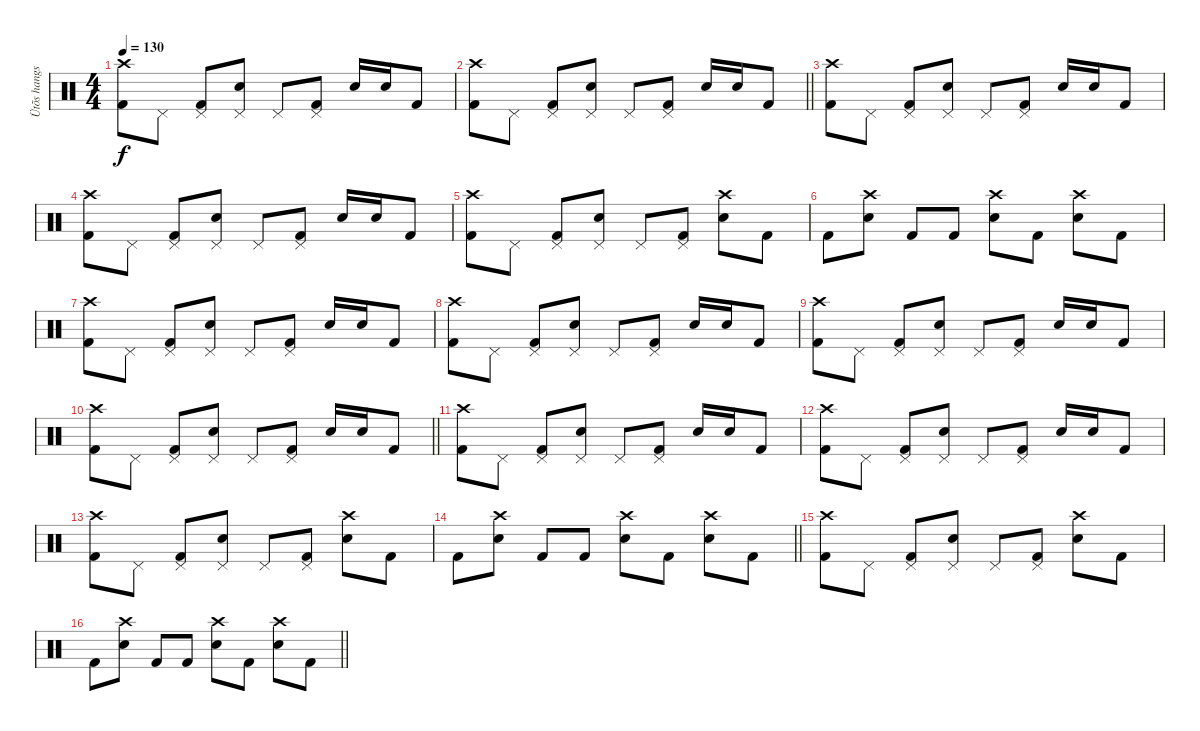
\track ("Ütõs hangszer" "Ütõs hangs") {instrument percussion}
\staff {score}
\articulation defaults
\ts (4 4)
\tempo 130
\clef neutral
\ks c
("Crash high (hit)" "Kick (hit) 2").8{dy f} "Pedal Hi-Hat (hit)".8 ("Pedal Hi-Hat (hit)" "Kick (hit) 2").8 ("Pedal Hi-Hat (hit)" "Snare (hit) 2").8 "Pedal Hi-Hat (hit)".8 ("Pedal Hi-Hat (hit)" "Kick (hit) 2").8 "Snare (hit) 2".16 "Snare (hit) 2".16 "Kick (hit) 2".8 |
\barLineRight lightlight
("Crash high (hit)" "Kick (hit) 2").8 "Pedal Hi-Hat (hit)".8 ("Pedal Hi-Hat (hit)" "Kick (hit) 2").8 ("Pedal Hi-Hat (hit)" "Snare (hit) 2").8 "Pedal Hi-Hat (hit)".8 ("Pedal Hi-Hat (hit)" "Kick (hit) 2").8 "Snare (hit) 2".16 "Snare (hit) 2".16 "Kick (hit) 2".8 |
("Crash high (hit)" "Kick (hit) 2").8 "Pedal Hi-Hat (hit)".8 ("Pedal Hi-Hat (hit)" "Kick (hit) 2").8 ("Pedal Hi-Hat (hit)" "Snare (hit) 2").8 "Pedal Hi-Hat (hit)".8 ("Pedal Hi-Hat (hit)" "Kick (hit) 2").8 "Snare (hit) 2".16 "Snare (hit) 2".16 "Kick (hit) 2".8 |
("Crash high (hit)" "Kick (hit) 2").8 "Pedal Hi-Hat (hit)".8 ("Pedal Hi-Hat (hit)" "Kick (hit) 2").8 ("Pedal Hi-Hat (hit)" "Snare (hit) 2").8 "Pedal Hi-Hat (hit)".8 ("Pedal Hi-Hat (hit)" "Kick (hit) 2").8 "Snare (hit) 2".16 "Snare (hit) 2".16 "Kick (hit) 2".8 |
("Crash high (hit)" "Kick (hit) 2").8 "Pedal Hi-Hat (hit)".8 ("Pedal Hi-Hat (hit)" "Kick (hit) 2").8 ("Pedal Hi-Hat (hit)" "Snare (hit) 2").8 "Pedal Hi-Hat (hit)".8 ("Pedal Hi-Hat (hit)" "Kick (hit) 2").8 ("Crash high (hit)" "Snare (hit) 2").8 "Kick (hit) 2".8 |
"Kick (hit) 2".8 ("Crash high (hit)" "Snare (hit) 2").8 "Kick (hit) 2".8 "Kick (hit) 2".8 ("Crash high (hit)" "Snare (hit) 2").8 "Kick (hit) 2".8 ("Crash high (hit)" "Snare (hit) 2").8 "Kick (hit) 2".8 |
("Crash high (hit)" "Kick (hit) 2").8 "Pedal Hi-Hat (hit)".8 ("Pedal Hi-Hat (hit)" "Kick (hit) 2").8 ("Pedal Hi-Hat (hit)" "Snare (hit) 2").8 "Pedal Hi-Hat (hit)".8 ("Pedal Hi-Hat (hit)" "Kick (hit) 2").8 "Snare (hit) 2".16 "Snare (hit) 2".16 "Kick (hit) 2".8 |
("Crash high (hit)" "Kick (hit) 2").8 "Pedal Hi-Hat (hit)".8 ("Pedal Hi-Hat (hit)" "Kick (hit) 2").8 ("Pedal Hi-Hat (hit)" "Snare (hit) 2").8 "Pedal Hi-Hat (hit)".8 ("Pedal Hi-Hat (hit)" "Kick (hit) 2").8 "Snare (hit) 2".16 "Snare (hit) 2".16 "Kick (hit) 2".8 |
("Crash high (hit)" "Kick (hit) 2").8 "Pedal Hi-Hat (hit)".8 ("Pedal Hi-Hat (hit)" "Kick (hit) 2").8 ("Pedal Hi-Hat (hit)" "Snare (hit) 2").8 "Pedal Hi-Hat (hit)".8 ("Pedal Hi-Hat (hit)" "Kick (hit) 2").8 "Snare (hit) 2".16 "Snare (hit) 2".16 "Kick (hit) 2".8 |
\barLineRight lightlight
("Crash high (hit)" "Kick (hit) 2").8 "Pedal Hi-Hat (hit)".8 ("Pedal Hi-Hat (hit)" "Kick (hit) 2").8 ("Pedal Hi-Hat (hit)" "Snare (hit) 2").8 "Pedal Hi-Hat (hit)".8 ("Pedal Hi-Hat (hit)" "Kick (hit) 2").8 "Snare (hit) 2".16 "Snare (hit) 2".16 "Kick (hit) 2".8 |
("Crash high (hit)" "Kick (hit) 2").8 "Pedal Hi-Hat (hit)".8 ("Pedal Hi-Hat (hit)" "Kick (hit) 2").8 ("Pedal Hi-Hat (hit)" "Snare (hit) 2").8 "Pedal Hi-Hat (hit)".8 ("Pedal Hi-Hat (hit)" "Kick (hit) 2").8 "Snare (hit) 2".16 "Snare (hit) 2".16 "Kick (hit) 2".8 |
("Crash high (hit)" "Kick (hit) 2").8 "Pedal Hi-Hat (hit)".8 ("Pedal Hi-Hat (hit)" "Kick (hit) 2").8 ("Pedal Hi-Hat (hit)" "Snare (hit) 2").8 "Pedal Hi-Hat (hit)".8 ("Pedal Hi-Hat (hit)" "Kick (hit) 2").8 "Snare (hit) 2".16 "Snare (hit) 2".16 "Kick (hit) 2".8 |
("Crash high (hit)" "Kick (hit) 2").8 "Pedal Hi-Hat (hit)".8 ("Pedal Hi-Hat (hit)" "Kick (hit) 2").8 ("Pedal Hi-Hat (hit)" "Snare (hit) 2").8 "Pedal Hi-Hat (hit)".8 ("Pedal Hi-Hat (hit)" "Kick (hit) 2").8 ("Crash high (hit)" "Snare (hit) 2").8 "Kick (hit) 2".8 |
\barLineRight lightlight "Kick (hit) 2".8
("Crash high (hit)" "Snare (hit) 2").8 "Kick (hit) 2".8 "Kick (hit) 2".8 ("Crash high (hit)" "Snare (hit) 2").8 "Kick (hit) 2".8 ("Crash high (hit)" "Snare (hit) 2").8 "Kick (hit) 2".8 |
("Crash high (hit)" "Kick (hit) 2").8 "Pedal Hi-Hat (hit)".8 ("Pedal Hi-Hat (hit)" "Kick (hit) 2").8 ("Pedal Hi-Hat (hit)" "Snare (hit) 2").8 "Pedal Hi-Hat (hit)".8 ("Pedal Hi-Hat (hit)" "Kick (hit) 2").8 ("Crash high (hit)" "Snare (hit) 2").8 "Kick (hit) 2".8 |
\barLineRight lightlight "Kick (hit) 2".8
("Crash high (hit)" "Snare (hit) 2").8 "Kick (hit) 2".8 "Kick (hit) 2".8 ("Crash high (hit)" "Snare (hit) 2").8 "Kick (hit) 2".8 ("Crash high (hit)" "Snare (hit) 2").8 "Kick (hit) 2".8
